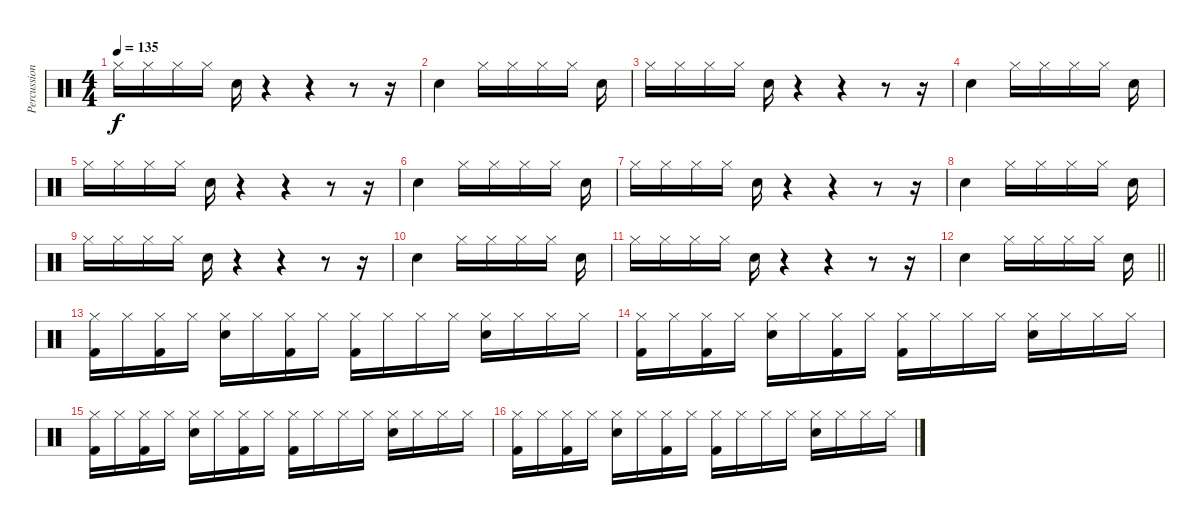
\track ("Percussion" "Percussion") {instrument percussion}
\staff {score}
\articulation defaults
\ts (4 4)
\tempo 135
\clef neutral
\ks c "Hi-Hat (closed)".16{dy f} "Hi-Hat (closed)".16 "Hi-Hat (closed)".16 "Hi-Hat (closed)".16 "Snare (hit) 2".16
r.4 r.4 r.8 r.16 |
"Snare (hit) 2".4 "Hi-Hat (closed)".16 "Hi-Hat (closed)".16 "Hi-Hat (closed)".16 "Hi-Hat (closed)".16 "Snare (hit) 2".16 |
"Hi-Hat (closed)".16 "Hi-Hat (closed)".16 "Hi-Hat (closed)".16 "Hi-Hat (closed)".16 "Snare (hit) 2".16 r.4 r.4 r.8 r.16 |
"Snare (hit) 2".4 "Hi-Hat (closed)".16 "Hi-Hat (closed)".16 "Hi-Hat (closed)".16 "Hi-Hat (closed)".16 "Snare (hit) 2".16 |
"Hi-Hat (closed)".16 "Hi-Hat (closed)".16 "Hi-Hat (closed)".16 "Hi-Hat (closed)".16 "Snare (hit) 2".16 r.4 r.4 r.8 r.16 |
"Snare (hit) 2".4 "Hi-Hat (closed)".16 "Hi-Hat (closed)".16 "Hi-Hat (closed)".16 "Hi-Hat (closed)".16 "Snare (hit) 2".16 |
"Hi-Hat (closed)".16 "Hi-Hat (closed)".16 "Hi-Hat (closed)".16 "Hi-Hat (closed)".16 "Snare (hit) 2".16 r.4 r.4 r.8 r.16 |
"Snare (hit) 2".4 "Hi-Hat (closed)".16 "Hi-Hat (closed)".16 "Hi-Hat (closed)".16 "Hi-Hat (closed)".16 "Snare (hit) 2".16 |
"Hi-Hat (closed)".16 "Hi-Hat (closed)".16 "Hi-Hat (closed)".16 "Hi-Hat (closed)".16 "Snare (hit) 2".16 r.4 r.4 r.8 r.16 |
"Snare (hit) 2".4 "Hi-Hat (closed)".16 "Hi-Hat (closed)".16 "Hi-Hat (closed)".16 "Hi-Hat (closed)".16 "Snare (hit) 2".16 |
"Hi-Hat (closed)".16 "Hi-Hat (closed)".16 "Hi-Hat (closed)".16 "Hi-Hat (closed)".16 "Snare (hit) 2".16 r.4 r.4 r.8 r.16 |
\barLineRight lightlight "Snare (hit) 2".4 "Hi-Hat (closed)".16 "Hi-Hat (closed)".16 "Hi-Hat (closed)".16 "Hi-Hat (closed)".16 "Snare (hit) 2".16
|
\section ("" "")
("Hi-Hat (closed)" "Kick (hit) 2").16 "Hi-Hat (closed)".16 ("Hi-Hat (closed)" "Kick (hit) 2").16 "Hi-Hat (closed)".16 ("Hi-Hat (closed)" "Snare (hit) 2").16 "Hi-Hat (closed)".16 ("Hi-Hat (closed)" "Kick (hit) 2").16 "Hi-Hat (closed)".16 ("Hi-Hat (closed)" "Kick (hit) 2").16 "Hi-Hat (closed)".16 "Hi-Hat (closed)".16 "Hi-Hat (closed)".16 ("Hi-Hat (closed)" "Snare (hit) 2").16 "Hi-Hat (closed)".16 "Hi-Hat (closed)".16 "Hi-Hat (closed)".16 |
("Hi-Hat (closed)" "Kick (hit) 2").16 "Hi-Hat (closed)".16 ("Hi-Hat (closed)" "Kick (hit) 2").16 "Hi-Hat (closed)".16 ("Hi-Hat (closed)" "Snare (hit) 2").16 "Hi-Hat (closed)".16 ("Hi-Hat (closed)" "Kick (hit) 2").16 "Hi-Hat (closed)".16 ("Hi-Hat (closed)" "Kick (hit) 2").16 "Hi-Hat (closed)".16 "Hi-Hat (closed)".16 "Hi-Hat (closed)".16 ("Hi-Hat (closed)" "Snare (hit) 2").16 "Hi-Hat (closed)".16 "Hi-Hat (closed)".16 "Hi-Hat (closed)".16 |
("Hi-Hat (closed)" "Kick (hit) 2").16 "Hi-Hat (closed)".16 ("Hi-Hat (closed)" "Kick (hit) 2").16 "Hi-Hat (closed)".16 ("Hi-Hat (closed)" "Snare (hit) 2").16 "Hi-Hat (closed)".16 ("Hi-Hat (closed)" "Kick (hit) 2").16 "Hi-Hat (closed)".16 ("Hi-Hat (closed)" "Kick (hit) 2").16 "Hi-Hat (closed)".16 "Hi-Hat (closed)".16 "Hi-Hat (closed)".16 ("Hi-Hat (closed)" "Snare (hit) 2").16 "Hi-Hat (closed)".16 "Hi-Hat (closed)".16 "Hi-Hat (closed)".16 |
("Hi-Hat (closed)" "Kick (hit) 2").16 "Hi-Hat (closed)".16 ("Hi-Hat (closed)" "Kick (hit) 2").16 "Hi-Hat (closed)".16 ("Hi-Hat (closed)" "Snare (hit) 2").16 "Hi-Hat (closed)".16 ("Hi-Hat (closed)" "Kick (hit) 2").16 "Hi-Hat (closed)".16 ("Hi-Hat (closed)" "Kick (hit) 2").16 "Hi-Hat (closed)".16 "Hi-Hat (closed)".16 "Hi-Hat (closed)".16 ("Hi-Hat (closed)" "Snare (hit) 2").16 "Hi-Hat (closed)".16 "Hi-Hat (closed)".16 "Hi-Hat (closed)".16
